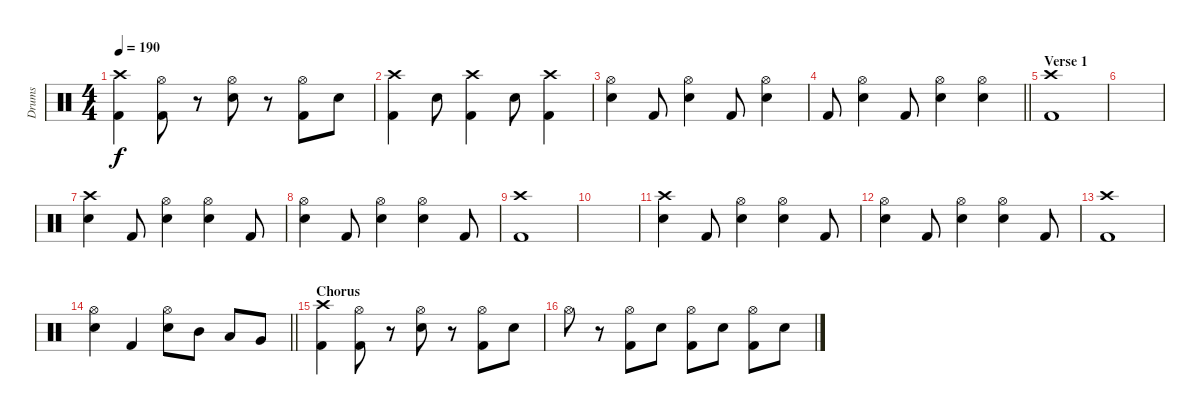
\track ("Drums" "Drums") {instrument percussion}
\staff {score}
\articulation defaults
\ts (4 4)
\tempo 190
\clef neutral
\ks c
("Crash high (hit)" "Kick (hit) 2").4{dy f} ("Hi-Hat (open)" "Kick (hit) 2").8 r.8 ("Snare (hit) 2" "Hi-Hat (open)").8 r.8 ("Hi-Hat (open)" "Kick (hit) 2").8 "Snare (hit) 2".8 |
("Crash high (hit)" "Kick (hit) 2").4 "Snare (hit) 2".8 ("Crash high (hit)" "Kick (hit) 2").4 "Snare (hit) 2".8 ("Crash high (hit)" "Kick (hit) 2").4 |
("Snare (hit) 2" "Hi-Hat (open)").4 "Kick (hit) 2".8 ("Snare (hit) 2" "Hi-Hat (open)").4 "Kick (hit) 2".8 ("Snare (hit) 2" "Hi-Hat (open)").4 |
\barLineRight lightlight "Kick (hit) 2".8
("Snare (hit) 2" "Hi-Hat (open)").4 "Kick (hit) 2".8 ("Snare (hit) 2" "Hi-Hat (open)").4 ("Snare (hit) 2" "Hi-Hat (open)").4 |
\section ("" "Verse 1")
("Crash high (hit)" "Kick (hit) 2").1 |
|
("Crash high (hit)" "Snare (hit) 2").4 "Kick (hit) 2".8 ("Snare (hit) 2" "Hi-Hat (open)").4 ("Snare (hit) 2" "Hi-Hat (open)").4 "Kick (hit) 2".8 |
("Snare (hit) 2" "Hi-Hat (open)").4 "Kick (hit) 2".8 ("Snare (hit) 2" "Hi-Hat (open)").4 ("Snare (hit) 2" "Hi-Hat (open)").4 "Kick (hit) 2".8 |
("Crash high (hit)" "Kick (hit) 2").1 |
|
("Crash high (hit)" "Snare (hit) 2").4 "Kick (hit) 2".8 ("Snare (hit) 2" "Hi-Hat (open)").4 ("Snare (hit) 2" "Hi-Hat (open)").4 "Kick (hit) 2".8 |
("Snare (hit) 2" "Hi-Hat (open)").4 "Kick (hit) 2".8 ("Snare (hit) 2" "Hi-Hat (open)").4 ("Snare (hit) 2" "Hi-Hat (open)").4 "Kick (hit) 2".8 |
("Crash high (hit)" "Kick (hit) 2").1 |
\barLineRight lightlight
("Snare (hit) 2" "Hi-Hat (open)").4 "Kick (hit) 2".4 ("Snare (hit) 2" "Hi-Hat (open)").8 "Mid Tom (hit)".8 "Low Tom (hit)".8 "Very Low Tom (hit)".8 |
\section ("" "Chorus")
("Crash high (hit)" "Kick (hit) 2").4 ("Hi-Hat (open)" "Kick (hit) 2").8 r.8 ("Snare (hit) 2" "Hi-Hat (open)").8 r.8 ("Hi-Hat (open)" "Kick (hit) 2").8 "Snare (hit) 2".8 |
"Hi-Hat (open)".8 r.8 ("Hi-Hat (open)" "Kick (hit) 2").8 "Snare (hit) 2".8 ("Hi-Hat (open)" "Kick (hit) 2").8 "Snare (hit) 2".8 ("Hi-Hat (open)" "Kick (hit) 2").8 "Snare (hit) 2".8
